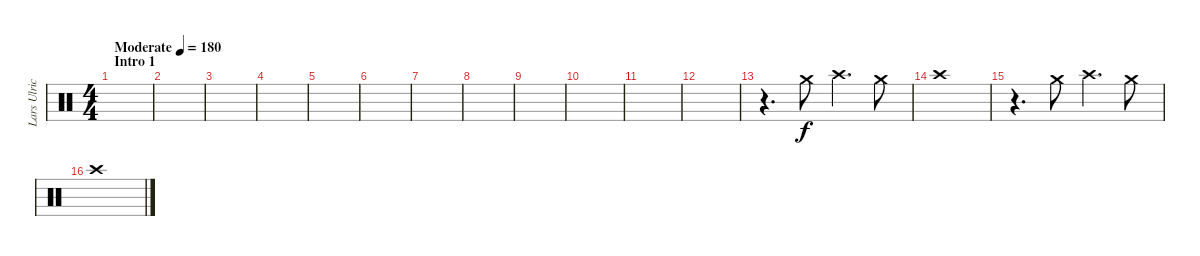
\track ("Lars Ulrich" "Lars Ulric") {instrument percussion}
\staff {score}
\articulation defaults
\ts (4 4)
\section ("" "Intro 1")
\tempo (180 "Moderate")
\clef neutral
\ks c
|
|
|
|
|
|
|
|
|
|
|
|
r.4{d} "Crash medium (hit)".8 "Crash high (hit)".4{d} "Crash medium (hit)".8 |
"Crash high (hit)".1 |
r.4{d} "Crash medium (hit)".8 "Crash high (hit)".4{d} "Crash medium (hit)".8 |
"Crash high (hit)".1
